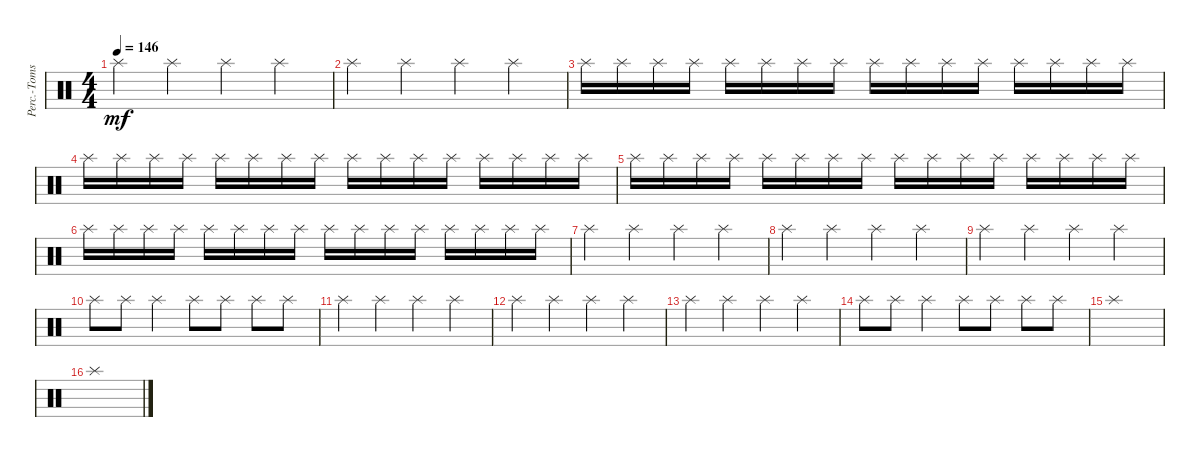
\track ("Perc.-Toms/Cym.2" "Perc.-Toms") {instrument percussion}
\staff {score}
\articulation defaults
\ts (4 4)
\tempo 146
\clef neutral
\ks c "Splash (hit)".4{dy mf} "Splash (hit)".4 "Splash (hit)".4 "Splash (hit)".4
|
"Splash (hit)".4 "Splash (hit)".4 "Splash (hit)".4 "Splash (hit)".4 |
"Splash (hit)".16 "Splash (hit)".16 "Splash (hit)".16 "Splash (hit)".16 "Splash (hit)".16 "Splash (hit)".16 "Splash (hit)".16 "Splash (hit)".16 "Splash (hit)".16 "Splash (hit)".16 "Splash (hit)".16 "Splash (hit)".16 "Splash (hit)".16 "Splash (hit)".16 "Splash (hit)".16 "Splash (hit)".16 |
"Splash (hit)".16 "Splash (hit)".16 "Splash (hit)".16 "Splash (hit)".16 "Splash (hit)".16 "Splash (hit)".16 "Splash (hit)".16 "Splash (hit)".16 "Splash (hit)".16 "Splash (hit)".16 "Splash (hit)".16 "Splash (hit)".16 "Splash (hit)".16 "Splash (hit)".16 "Splash (hit)".16 "Splash (hit)".16 |
"Splash (hit)".16 "Splash (hit)".16 "Splash (hit)".16 "Splash (hit)".16 "Splash (hit)".16 "Splash (hit)".16 "Splash (hit)".16 "Splash (hit)".16 "Splash (hit)".16 "Splash (hit)".16 "Splash (hit)".16 "Splash (hit)".16 "Splash (hit)".16 "Splash (hit)".16 "Splash (hit)".16 "Splash (hit)".16 |
"Splash (hit)".16 "Splash (hit)".16 "Splash (hit)".16 "Splash (hit)".16 "Splash (hit)".16 "Splash (hit)".16 "Splash (hit)".16 "Splash (hit)".16 "Splash (hit)".16 "Splash (hit)".16 "Splash (hit)".16 "Splash (hit)".16 "Splash (hit)".16 "Splash (hit)".16 "Splash (hit)".16 "Splash (hit)".16 |
"Splash (hit)".4 "Splash (hit)".4 "Splash (hit)".4 "Splash (hit)".4 |
"Splash (hit)".4 "Splash (hit)".4 "Splash (hit)".4 "Splash (hit)".4 |
"Splash (hit)".4 "Splash (hit)".4 "Splash (hit)".4 "Splash (hit)".4 |
"Splash (hit)".8 "Splash (hit)".8 "Splash (hit)".4 "Splash (hit)".8 "Splash (hit)".8 "Splash (hit)".8 "Splash (hit)".8 |
"Splash (hit)".4 "Splash (hit)".4 "Splash (hit)".4 "Splash (hit)".4 |
"Splash (hit)".4 "Splash (hit)".4 "Splash (hit)".4 "Splash (hit)".4 |
"Splash (hit)".4 "Splash (hit)".4 "Splash (hit)".4 "Splash (hit)".4 |
"Splash (hit)".8 "Splash (hit)".8 "Splash (hit)".4 "Splash (hit)".8 "Splash (hit)".8 "Splash (hit)".8 "Splash (hit)".8 |
"Splash (hit)".1 |
"Splash (hit)".1
